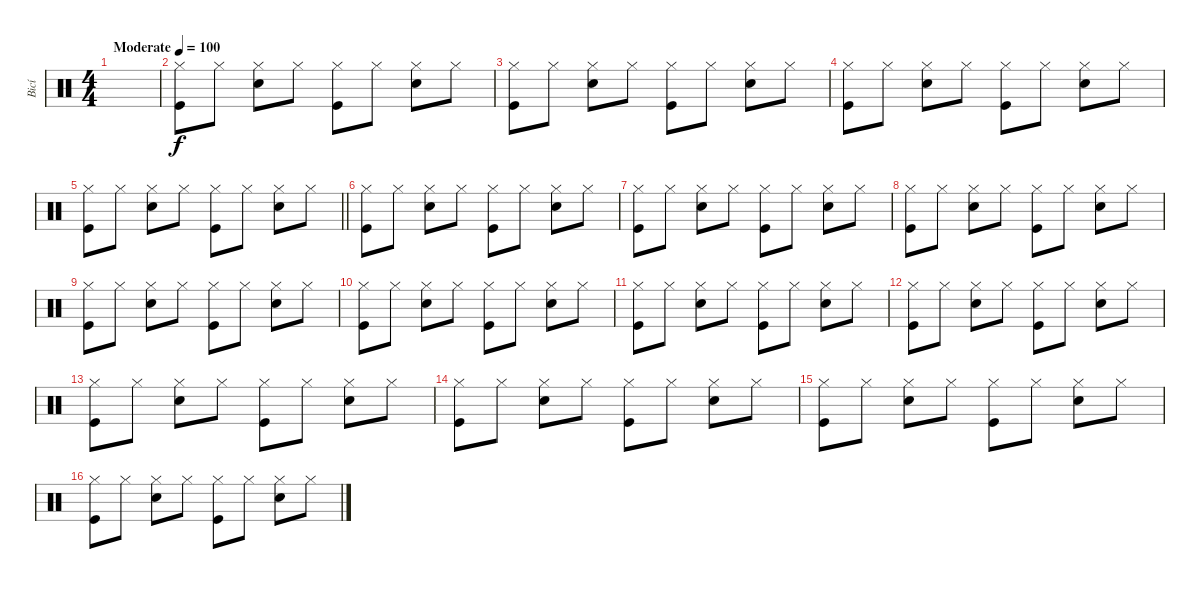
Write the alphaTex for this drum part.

\track ("Bicí" "Bicí") {instrument percussion}
\staff {score}
\articulation defaults
\ts (4 4)
\tempo (100 "Moderate")
\clef neutral
\ks c
|
("Hi-Hat (closed)" "Kick (hit)").8 "Hi-Hat (closed)".8 ("Hi-Hat (closed)" "Electric Snare (hit)").8 "Hi-Hat (closed)".8 ("Hi-Hat (closed)" "Kick (hit)").8 "Hi-Hat (closed)".8 ("Hi-Hat (closed)" "Electric Snare (hit)").8 "Hi-Hat (closed)".8 |
("Hi-Hat (closed)" "Kick (hit)").8 "Hi-Hat (closed)".8 ("Hi-Hat (closed)" "Electric Snare (hit)").8 "Hi-Hat (closed)".8 ("Hi-Hat (closed)" "Kick (hit)").8 "Hi-Hat (closed)".8 ("Hi-Hat (closed)" "Electric Snare (hit)").8 "Hi-Hat (closed)".8 |
("Hi-Hat (closed)" "Kick (hit)").8 "Hi-Hat (closed)".8 ("Hi-Hat (closed)" "Electric Snare (hit)").8 "Hi-Hat (closed)".8 ("Hi-Hat (closed)" "Kick (hit)").8 "Hi-Hat (closed)".8 ("Hi-Hat (closed)" "Electric Snare (hit)").8 "Hi-Hat (closed)".8 |
\barLineRight lightlight
("Hi-Hat (closed)" "Kick (hit)").8 "Hi-Hat (closed)".8 ("Hi-Hat (closed)" "Electric Snare (hit)").8 "Hi-Hat (closed)".8 ("Hi-Hat (closed)" "Kick (hit)").8 "Hi-Hat (closed)".8 ("Hi-Hat (closed)" "Electric Snare (hit)").8 "Hi-Hat (closed)".8 |
\section ("" "")
("Hi-Hat (closed)" "Kick (hit)").8 "Hi-Hat (closed)".8 ("Hi-Hat (closed)" "Electric Snare (hit)").8 "Hi-Hat (closed)".8 ("Hi-Hat (closed)" "Kick (hit)").8 "Hi-Hat (closed)".8 ("Hi-Hat (closed)" "Electric Snare (hit)").8 "Hi-Hat (closed)".8 |
("Hi-Hat (closed)" "Kick (hit)").8 "Hi-Hat (closed)".8 ("Hi-Hat (closed)" "Electric Snare (hit)").8 "Hi-Hat (closed)".8 ("Hi-Hat (closed)" "Kick (hit)").8 "Hi-Hat (closed)".8 ("Hi-Hat (closed)" "Electric Snare (hit)").8 "Hi-Hat (closed)".8 |
("Hi-Hat (closed)" "Kick (hit)").8 "Hi-Hat (closed)".8 ("Hi-Hat (closed)" "Electric Snare (hit)").8 "Hi-Hat (closed)".8 ("Hi-Hat (closed)" "Kick (hit)").8 "Hi-Hat (closed)".8 ("Hi-Hat (closed)" "Electric Snare (hit)").8 "Hi-Hat (closed)".8 |
("Hi-Hat (closed)" "Kick (hit)").8 "Hi-Hat (closed)".8 ("Hi-Hat (closed)" "Electric Snare (hit)").8 "Hi-Hat (closed)".8 ("Hi-Hat (closed)" "Kick (hit)").8 "Hi-Hat (closed)".8 ("Hi-Hat (closed)" "Electric Snare (hit)").8 "Hi-Hat (closed)".8 |
("Hi-Hat (closed)" "Kick (hit)").8 "Hi-Hat (closed)".8 ("Hi-Hat (closed)" "Electric Snare (hit)").8 "Hi-Hat (closed)".8 ("Hi-Hat (closed)" "Kick (hit)").8 "Hi-Hat (closed)".8 ("Hi-Hat (closed)" "Electric Snare (hit)").8 "Hi-Hat (closed)".8 |
("Hi-Hat (closed)" "Kick (hit)").8 "Hi-Hat (closed)".8 ("Hi-Hat (closed)" "Electric Snare (hit)").8 "Hi-Hat (closed)".8 ("Hi-Hat (closed)" "Kick (hit)").8 "Hi-Hat (closed)".8 ("Hi-Hat (closed)" "Electric Snare (hit)").8 "Hi-Hat (closed)".8 |
("Hi-Hat (closed)" "Kick (hit)").8 "Hi-Hat (closed)".8 ("Hi-Hat (closed)" "Electric Snare (hit)").8 "Hi-Hat (closed)".8 ("Hi-Hat (closed)" "Kick (hit)").8 "Hi-Hat (closed)".8 ("Hi-Hat (closed)" "Electric Snare (hit)").8 "Hi-Hat (closed)".8 |
("Hi-Hat (closed)" "Kick (hit)").8 "Hi-Hat (closed)".8 ("Hi-Hat (closed)" "Electric Snare (hit)").8 "Hi-Hat (closed)".8 ("Hi-Hat (closed)" "Kick (hit)").8 "Hi-Hat (closed)".8 ("Hi-Hat (closed)" "Electric Snare (hit)").8 "Hi-Hat (closed)".8 |
("Hi-Hat (closed)" "Kick (hit)").8 "Hi-Hat (closed)".8 ("Hi-Hat (closed)" "Electric Snare (hit)").8 "Hi-Hat (closed)".8 ("Hi-Hat (closed)" "Kick (hit)").8 "Hi-Hat (closed)".8 ("Hi-Hat (closed)" "Electric Snare (hit)").8 "Hi-Hat (closed)".8 |
("Hi-Hat (closed)" "Kick (hit)").8 "Hi-Hat (closed)".8 ("Hi-Hat (closed)" "Electric Snare (hit)").8 "Hi-Hat (closed)".8 ("Hi-Hat (closed)" "Kick (hit)").8 "Hi-Hat (closed)".8 ("Hi-Hat (closed)" "Electric Snare (hit)").8 "Hi-Hat (closed)".8 |
("Hi-Hat (closed)" "Kick (hit)").8 "Hi-Hat (closed)".8 ("Hi-Hat (closed)" "Electric Snare (hit)").8 "Hi-Hat (closed)".8 ("Hi-Hat (closed)" "Kick (hit)").8 "Hi-Hat (closed)".8 ("Hi-Hat (closed)" "Electric Snare (hit)").8 "Hi-Hat (closed)".8
